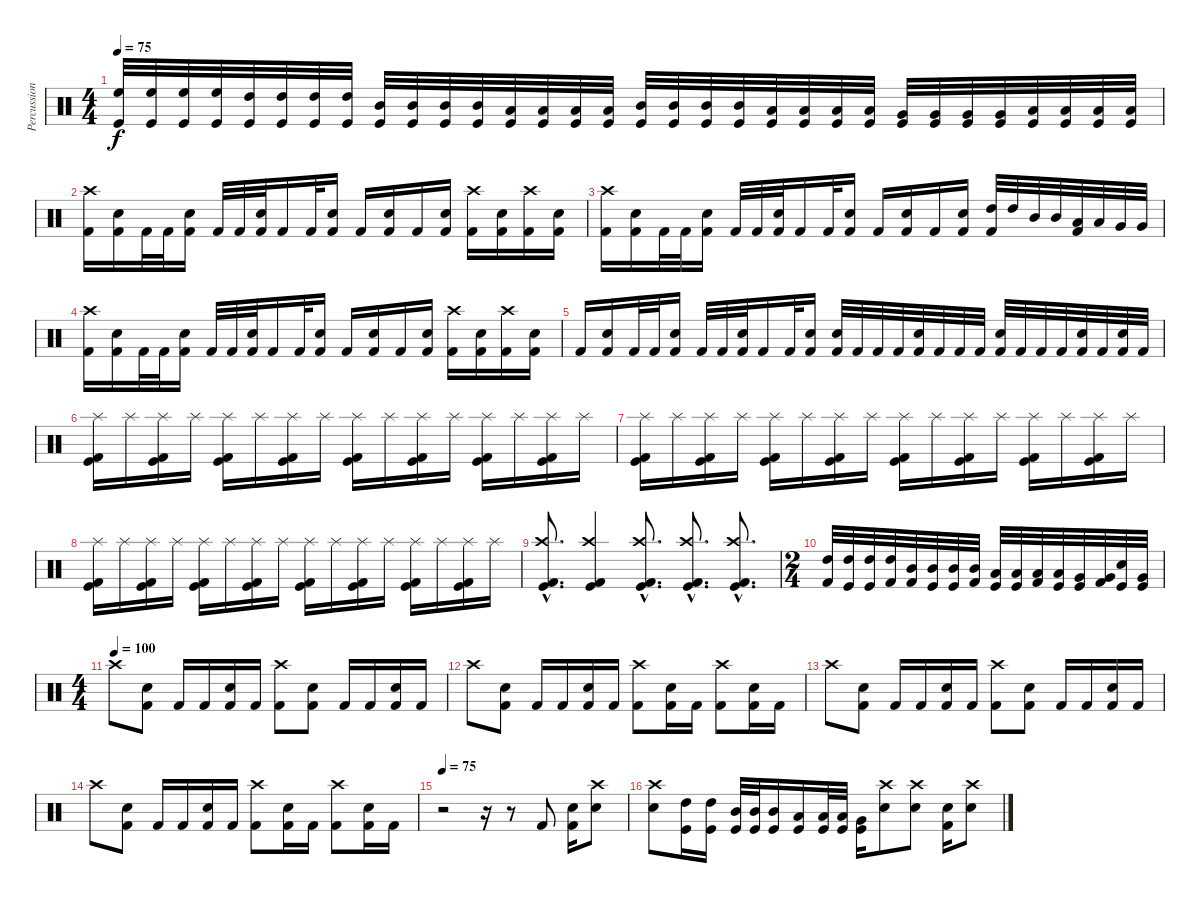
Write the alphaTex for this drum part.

\track ("Percussion" "Percussion") {instrument percussion}
\staff {score}
\articulation defaults
\ts (4 4)
\tempo 75
\clef neutral
\ks c
("High Floor Tom (hit)" "Kick (hit)").32{dy f} ("High Floor Tom (hit)" "Kick (hit)").32 ("High Floor Tom (hit)" "Kick (hit)").32 ("High Floor Tom (hit)" "Kick (hit)").32 ("High Tom (hit)" "Kick (hit)").32 ("High Tom (hit)" "Kick (hit)").32 ("High Tom (hit)" "Kick (hit)").32 ("High Tom (hit)" "Kick (hit)").32 ("Mid Tom (hit)" "Kick (hit)").32 ("Mid Tom (hit)" "Kick (hit)").32 ("Mid Tom (hit)" "Kick (hit)").32 ("Mid Tom (hit)" "Kick (hit)").32 ("Low Tom (hit)" "Kick (hit)").32 ("Low Tom (hit)" "Kick (hit)").32 ("Low Tom (hit)" "Kick (hit)").32 ("Low Tom (hit)" "Kick (hit)").32 ("Mid Tom (hit)" "Kick (hit)").32 ("Mid Tom (hit)" "Kick (hit)").32 ("Mid Tom (hit)" "Kick (hit)").32 ("Mid Tom (hit)" "Kick (hit)").32 ("Low Tom (hit)" "Kick (hit)").32 ("Low Tom (hit)" "Kick (hit)").32 ("Low Tom (hit)" "Kick (hit)").32 ("Low Tom (hit)" "Kick (hit)").32 ("Very Low Tom (hit)" "Kick (hit)").32 ("Very Low Tom (hit)" "Kick (hit)").32 ("Very Low Tom (hit)" "Kick (hit)").32 ("Very Low Tom (hit)" "Kick (hit)").32 ("Low Floor Tom (hit)" "Kick (hit)").32 ("Low Floor Tom (hit)" "Kick (hit)").32 ("Low Floor Tom (hit)" "Kick (hit)").32 ("Low Floor Tom (hit)" "Kick (hit)").32 |
("Crash high (hit)" "Kick (hit) 2").16 ("Snare (hit) 2" "Kick (hit) 2").16 "Kick (hit) 2".32 "Kick (hit) 2".32 ("Snare (hit) 2" "Kick (hit) 2").16 "Kick (hit) 2".32 "Kick (hit) 2".32 ("Snare (hit) 2" "Kick (hit) 2").32 "Kick (hit) 2".16 "Kick (hit) 2".32 ("Snare (hit) 2" "Kick (hit) 2").16 "Kick (hit) 2".16 ("Snare (hit) 2" "Kick (hit) 2").16 "Kick (hit) 2".16 ("Snare (hit) 2" "Kick (hit) 2").16 ("Crash high (hit)" "Kick (hit) 2").16 ("Snare (hit) 2" "Kick (hit) 2").16 ("Crash high (hit)" "Kick (hit) 2").16 ("Snare (hit) 2" "Kick (hit) 2").16 |
("Crash high (hit)" "Kick (hit) 2").16 ("Snare (hit) 2" "Kick (hit) 2").16 "Kick (hit) 2".32 "Kick (hit) 2".32 ("Snare (hit) 2" "Kick (hit) 2").16 "Kick (hit) 2".32 "Kick (hit) 2".32 ("Snare (hit) 2" "Kick (hit) 2").32 "Kick (hit) 2".16 "Kick (hit) 2".32 ("Snare (hit) 2" "Kick (hit) 2").16 "Kick (hit) 2".16 ("Snare (hit) 2" "Kick (hit) 2").16 "Kick (hit) 2".16 ("Snare (hit) 2" "Kick (hit) 2").16 ("High Tom (hit)" "Kick (hit) 2").32 "High Tom (hit)".32 "Mid Tom (hit)".32 "Mid Tom (hit)".32 ("Low Tom (hit)" "Kick (hit) 2").32 "Low Tom (hit)".32 "Very Low Tom (hit)".32 "Very Low Tom (hit)".32 |
("Crash high (hit)" "Kick (hit) 2").16 ("Snare (hit) 2" "Kick (hit) 2").16 "Kick (hit) 2".32 "Kick (hit) 2".32 ("Snare (hit) 2" "Kick (hit) 2").16 "Kick (hit) 2".32 "Kick (hit) 2".32 ("Snare (hit) 2" "Kick (hit) 2").32 "Kick (hit) 2".16 "Kick (hit) 2".32 ("Snare (hit) 2" "Kick (hit) 2").16 "Kick (hit) 2".16 ("Snare (hit) 2" "Kick (hit) 2").16 "Kick (hit) 2".16 ("Snare (hit) 2" "Kick (hit) 2").16 ("Crash high (hit)" "Kick (hit) 2").16 ("Snare (hit) 2" "Kick (hit) 2").16 ("Crash high (hit)" "Kick (hit) 2").16 ("Snare (hit) 2" "Kick (hit) 2").16 |
"Kick (hit) 2".16 ("Snare (hit) 2" "Kick (hit) 2").16 "Kick (hit) 2".32 "Kick (hit) 2".32 ("Snare (hit) 2" "Kick (hit) 2").16 "Kick (hit) 2".32 "Kick (hit) 2".32 ("Snare (hit) 2" "Kick (hit) 2").32 "Kick (hit) 2".16 "Kick (hit) 2".32 ("Snare (hit) 2" "Kick (hit) 2").16 ("Snare (hit) 2" "Kick (hit) 2").32 "Kick (hit) 2".32 "Kick (hit) 2".32 "Kick (hit) 2".32 ("Snare (hit) 2" "Kick (hit) 2").32 "Kick (hit) 2".32 "Kick (hit) 2".32 "Kick (hit) 2".32 ("Snare (hit) 2" "Kick (hit) 2").32 "Kick (hit) 2".32 "Kick (hit) 2".32 "Kick (hit) 2".32 ("Snare (hit) 2" "Kick (hit) 2").32 "Kick (hit) 2".32 ("Snare (hit) 2" "Kick (hit) 2").32 "Kick (hit) 2".32 |
("Splash (hit)" "Kick (hit)" "Kick (hit) 2").16 "Splash (hit)".16 ("Splash (hit)" "Kick (hit)" "Kick (hit) 2").16 "Splash (hit)".16 ("Splash (hit)" "Kick (hit)" "Kick (hit) 2").16 "Splash (hit)".16 ("Splash (hit)" "Kick (hit)" "Kick (hit) 2").16 "Splash (hit)".16 ("Splash (hit)" "Kick (hit)" "Kick (hit) 2").16 "Splash (hit)".16 ("Splash (hit)" "Kick (hit)" "Kick (hit) 2").16 "Splash (hit)".16 ("Splash (hit)" "Kick (hit)" "Kick (hit) 2").16 "Splash (hit)".16 ("Splash (hit)" "Kick (hit)" "Kick (hit) 2").16 "Splash (hit)".16 |
("Splash (hit)" "Kick (hit)" "Kick (hit) 2").16 "Splash (hit)".16 ("Splash (hit)" "Kick (hit)" "Kick (hit) 2").16 "Splash (hit)".16 ("Splash (hit)" "Kick (hit)" "Kick (hit) 2").16 "Splash (hit)".16 ("Splash (hit)" "Kick (hit)" "Kick (hit) 2").16 "Splash (hit)".16 ("Splash (hit)" "Kick (hit)" "Kick (hit) 2").16 "Splash (hit)".16 ("Splash (hit)" "Kick (hit)" "Kick (hit) 2").16 "Splash (hit)".16 ("Splash (hit)" "Kick (hit)" "Kick (hit) 2").16 "Splash (hit)".16 ("Splash (hit)" "Kick (hit)" "Kick (hit) 2").16 "Splash (hit)".16 |
("Splash (hit)" "Kick (hit)" "Kick (hit) 2").16 "Splash (hit)".16 ("Splash (hit)" "Kick (hit)" "Kick (hit) 2").16 "Splash (hit)".16 ("Splash (hit)" "Kick (hit)" "Kick (hit) 2").16 "Splash (hit)".16 ("Splash (hit)" "Kick (hit)" "Kick (hit) 2").16 "Splash (hit)".16 ("Splash (hit)" "Kick (hit)" "Kick (hit) 2").16 "Splash (hit)".16 ("Splash (hit)" "Kick (hit)" "Kick (hit) 2").16 "Splash (hit)".16 ("Splash (hit)" "Kick (hit)" "Kick (hit) 2").16 "Splash (hit)".16 ("Splash (hit)" "Kick (hit)" "Kick (hit) 2").16 "Splash (hit)".16 |
("Crash high (hit)"{hac} "Kick (hit)"{hac} "Kick (hit) 2"{hac}).8{d} ("Crash high (hit)" "Kick (hit)" "Kick (hit) 2").4 ("Crash high (hit)"{hac} "Kick (hit)"{hac} "Kick (hit) 2"{hac}).8{d} ("Crash high (hit)"{hac} "Kick (hit)"{hac} "Kick (hit) 2"{hac}).8{d} ("Crash high (hit)"{hac} "Kick (hit)"{hac} "Kick (hit) 2"{hac}).8{d} |
\ts (2 4)
("High Tom (hit)" "Kick (hit) 2").32 ("High Tom (hit)" "Kick (hit)").32 ("High Tom (hit)" "Kick (hit)").32 ("High Tom (hit)" "Kick (hit) 2").32 ("Mid Tom (hit)" "Kick (hit) 2").32 ("Mid Tom (hit)" "Kick (hit)").32 ("Mid Tom (hit)" "Kick (hit)").32 ("Mid Tom (hit)" "Kick (hit) 2").32 ("Low Tom (hit)" "Kick (hit)").32 ("Low Tom (hit)" "Kick (hit)").32 ("Low Tom (hit)" "Kick (hit) 2").32 ("Low Tom (hit)" "Kick (hit)").32 ("Very Low Tom (hit)" "Kick (hit)").32 ("Very Low Tom (hit)" "Kick (hit) 2").32 ("Snare (hit) 2" "Kick (hit)").32 ("Very Low Tom (hit)" "Kick (hit)").32 |
\ts (4 4)
\tempo (100)
"Crash high (hit)".8 ("Snare (hit) 2" "Kick (hit) 2").8 "Kick (hit) 2".16 "Kick (hit) 2".16 ("Snare (hit) 2" "Kick (hit) 2").16 "Kick (hit) 2".16 ("Crash high (hit)" "Kick (hit) 2").8 ("Snare (hit) 2" "Kick (hit) 2").8 "Kick (hit) 2".16 "Kick (hit) 2".16 ("Snare (hit) 2" "Kick (hit) 2").16 "Kick (hit) 2".16 |
"Crash high (hit)".8 ("Snare (hit) 2" "Kick (hit) 2").8 "Kick (hit) 2".16 "Kick (hit) 2".16 ("Snare (hit) 2" "Kick (hit) 2").16 "Kick (hit) 2".16 ("Crash high (hit)" "Kick (hit) 2").8 ("Snare (hit) 2" "Kick (hit) 2").16 "Kick (hit) 2".16 ("Crash high (hit)" "Kick (hit) 2").8 ("Snare (hit) 2" "Kick (hit) 2").16 "Kick (hit) 2".16 |
"Crash high (hit)".8 ("Snare (hit) 2" "Kick (hit) 2").8 "Kick (hit) 2".16 "Kick (hit) 2".16 ("Snare (hit) 2" "Kick (hit) 2").16 "Kick (hit) 2".16 ("Crash high (hit)" "Kick (hit) 2").8 ("Snare (hit) 2" "Kick (hit) 2").8 "Kick (hit) 2".16 "Kick (hit) 2".16 ("Snare (hit) 2" "Kick (hit) 2").16 "Kick (hit) 2".16 |
"Crash high (hit)".8 ("Snare (hit) 2" "Kick (hit) 2").8 "Kick (hit) 2".16 "Kick (hit) 2".16 ("Snare (hit) 2" "Kick (hit) 2").16 "Kick (hit) 2".16 ("Crash high (hit)" "Kick (hit) 2").8 ("Snare (hit) 2" "Kick (hit) 2").16 "Kick (hit) 2".16 ("Crash high (hit)" "Kick (hit) 2").8 ("Snare (hit) 2" "Kick (hit) 2").16 "Kick (hit) 2".16 |
\tempo 75
r.2 r.16 r.8 "Kick (hit) 2".8 ("Snare (hit) 2" "Kick (hit) 2").16 ("Crash high (hit)" "Snare (hit) 2").8 |
("Crash high (hit)" "Snare (hit) 2").8 ("High Tom (hit)" "Kick (hit)").16 ("High Tom (hit)" "Kick (hit)").16 ("Mid Tom (hit)" "Kick (hit)").32 ("Mid Tom (hit)" "Kick (hit)").32 ("Mid Tom (hit)" "Kick (hit)").16 ("Low Tom (hit)" "Kick (hit)").16 ("Low Tom (hit)" "Kick (hit)").32 ("Low Tom (hit)" "Kick (hit)").32 ("Very Low Tom (hit)" "Kick (hit)").16 ("Crash high (hit)" "Snare (hit) 2").8 ("Crash high (hit)" "Snare (hit) 2").8 ("Kick (hit) 2" "Snare (hit) 2").16 ("Crash high (hit)" "Snare (hit) 2").8
